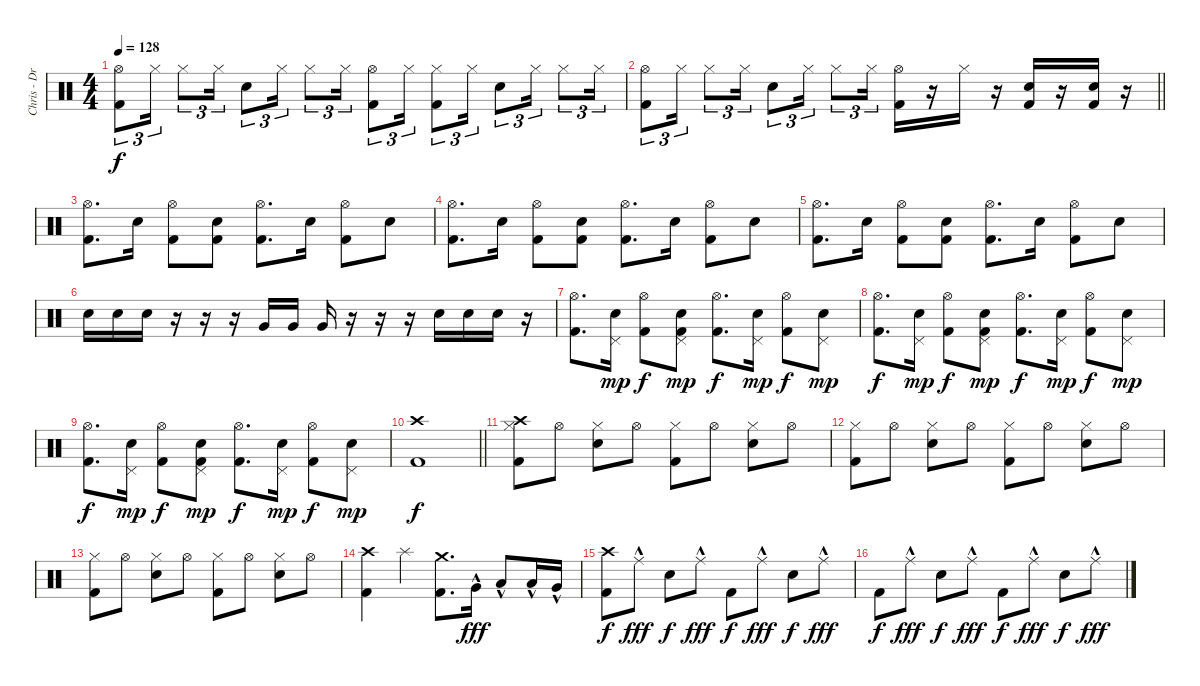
\track ("Chris - Drums" "Chris - Dr") {instrument percussion}
\staff {score}
\articulation defaults
\ts (4 4)
\tempo 128
\clef neutral
\ks c
("Hi-Hat (open)" "Kick (hit) 2").8{tu (3 2) dy f} "Hi-Hat (closed)".16{tu (3 2)} "Hi-Hat (closed)".8{tu (3 2)} "Hi-Hat (closed)".16{tu (3 2)} "Electric Snare (hit)".8{tu (3 2)} "Hi-Hat (closed)".16{tu (3 2)} "Hi-Hat (closed)".8{tu (3 2)} "Hi-Hat (closed)".16{tu (3 2)} ("Hi-Hat (open)" "Kick (hit) 2").8{tu (3 2)} "Hi-Hat (closed)".16{tu (3 2)} ("Hi-Hat (closed)" "Kick (hit) 2").8{tu (3 2)} "Hi-Hat (closed)".16{tu (3 2)} "Electric Snare (hit)".8{tu (3 2)} "Hi-Hat (closed)".16{tu (3 2)} "Hi-Hat (closed)".8{tu (3 2)} "Hi-Hat (closed)".16{tu (3 2)} |
\barLineRight lightlight
("Hi-Hat (open)" "Kick (hit) 2").8{tu (3 2)} "Hi-Hat (closed)".16{tu (3 2)} "Hi-Hat (closed)".8{tu (3 2)} "Hi-Hat (closed)".16{tu (3 2)} "Electric Snare (hit)".8{tu (3 2)} "Hi-Hat (closed)".16{tu (3 2)} "Hi-Hat (closed)".8{tu (3 2)} "Hi-Hat (closed)".16{tu (3 2)} ("Hi-Hat (open)" "Kick (hit) 2").16 r.16 "Hi-Hat (closed)".16 r.16 ("Electric Snare (hit)" "Kick (hit) 2").16 r.16 ("Electric Snare (hit)" "Kick (hit) 2").16 r.16 |
("Hi-Hat (open)" "Kick (hit) 2").8{d} "Electric Snare (hit)".16 ("Hi-Hat (open)" "Kick (hit) 2").8 ("Electric Snare (hit)" "Kick (hit) 2").8 ("Hi-Hat (open)" "Kick (hit) 2").8{d} "Electric Snare (hit)".16 ("Hi-Hat (open)" "Kick (hit) 2").8 "Electric Snare (hit)".8 |
("Hi-Hat (open)" "Kick (hit) 2").8{d} "Electric Snare (hit)".16 ("Hi-Hat (open)" "Kick (hit) 2").8 ("Electric Snare (hit)" "Kick (hit) 2").8 ("Hi-Hat (open)" "Kick (hit) 2").8{d} "Electric Snare (hit)".16 ("Hi-Hat (open)" "Kick (hit) 2").8 "Electric Snare (hit)".8 |
("Hi-Hat (open)" "Kick (hit) 2").8{d} "Electric Snare (hit)".16 ("Hi-Hat (open)" "Kick (hit) 2").8 ("Electric Snare (hit)" "Kick (hit) 2").8 ("Hi-Hat (open)" "Kick (hit) 2").8{d} "Electric Snare (hit)".16 ("Hi-Hat (open)" "Kick (hit) 2").8 "Electric Snare (hit)".8 |
"Electric Snare (hit)".16 "Electric Snare (hit)".16 "Electric Snare (hit)".16 r.16 r.16 r.16 "Very Low Tom (hit)".16 "Very Low Tom (hit)".16 "Very Low Tom (hit)".16 r.16 r.16 r.16 "Electric Snare (hit)".16 "Electric Snare (hit)".16 "Electric Snare (hit)".16 r.16 |
("Hi-Hat (open)" "Kick (hit) 2").8{d} ("Pedal Hi-Hat (hit)" "Electric Snare (hit)").16{dy mp} ("Hi-Hat (open)" "Kick (hit) 2").8{dy f} ("Pedal Hi-Hat (hit)" "Electric Snare (hit)" "Kick (hit) 2").8{dy mp} ("Hi-Hat (open)" "Kick (hit) 2").8{d dy f} ("Pedal Hi-Hat (hit)" "Electric Snare (hit)").16{dy mp} ("Hi-Hat (open)" "Kick (hit) 2").8{dy f} ("Pedal Hi-Hat (hit)" "Electric Snare (hit)").8{dy mp} |
("Hi-Hat (open)" "Kick (hit) 2").8{d dy f} ("Pedal Hi-Hat (hit)" "Electric Snare (hit)").16{dy mp} ("Hi-Hat (open)" "Kick (hit) 2").8{dy f} ("Pedal Hi-Hat (hit)" "Electric Snare (hit)" "Kick (hit) 2").8{dy mp} ("Hi-Hat (open)" "Kick (hit) 2").8{d dy f} ("Pedal Hi-Hat (hit)" "Electric Snare (hit)").16{dy mp} ("Hi-Hat (open)" "Kick (hit) 2").8{dy f} ("Pedal Hi-Hat (hit)" "Electric Snare (hit)").8{dy mp} |
("Hi-Hat (open)" "Kick (hit) 2").8{d dy f} ("Pedal Hi-Hat (hit)" "Electric Snare (hit)").16{dy mp} ("Hi-Hat (open)" "Kick (hit) 2").8{dy f} ("Pedal Hi-Hat (hit)" "Electric Snare (hit)" "Kick (hit) 2").8{dy mp} ("Hi-Hat (open)" "Kick (hit) 2").8{d dy f} ("Pedal Hi-Hat (hit)" "Electric Snare (hit)").16{dy mp} ("Hi-Hat (open)" "Kick (hit) 2").8{dy f} ("Pedal Hi-Hat (hit)" "Electric Snare (hit)").8{dy mp} |
\barLineRight lightlight
("Crash high (hit)" "Kick (hit) 2").1{dy f} |
("Crash high (hit)" "Hi-Hat (closed)" "Kick (hit) 2").8 "Hi-Hat (open)".8 ("Hi-Hat (closed)" "Electric Snare (hit)").8 "Hi-Hat (open)".8 ("Hi-Hat (closed)" "Kick (hit) 2").8 "Hi-Hat (open)".8 ("Hi-Hat (closed)" "Electric Snare (hit)").8 "Hi-Hat (open)".8 |
("Hi-Hat (closed)" "Kick (hit) 2").8 "Hi-Hat (open)".8 ("Hi-Hat (closed)" "Electric Snare (hit)").8 "Hi-Hat (open)".8 ("Hi-Hat (closed)" "Kick (hit) 2").8 "Hi-Hat (open)".8 ("Hi-Hat (closed)" "Electric Snare (hit)").8 "Hi-Hat (open)".8 |
("Hi-Hat (closed)" "Kick (hit) 2").8 "Hi-Hat (open)".8 ("Hi-Hat (closed)" "Electric Snare (hit)").8 "Hi-Hat (open)".8 ("Hi-Hat (closed)" "Kick (hit) 2").8 "Hi-Hat (open)".8 ("Hi-Hat (closed)" "Electric Snare (hit)").8 "Hi-Hat (open)".8 |
("Crash high (hit)" "Kick (hit) 2").4 "Splash (hit)".4 ("Crash medium (hit)" "Kick (hit) 2").8{d} "Very Low Tom (hit)"{hac}.16{dy fff} "Low Tom (hit)"{hac}.8 "Low Tom (hit)"{hac}.16 "Very Low Tom (hit)"{hac}.16 |
("Crash high (hit)" "Kick (hit) 2").8{dy f} "Ride (middle)"{hac}.8{dy fff} "Electric Snare (hit)".8{dy f} "Ride (middle)"{hac}.8{dy fff} "Kick (hit) 2".8{dy f} "Ride (middle)"{hac}.8{dy fff} "Electric Snare (hit)".8{dy f} "Ride (middle)"{hac}.8{dy fff} |
"Kick (hit) 2".8{dy f} "Ride (middle)"{hac}.8{dy fff} "Electric Snare (hit)".8{dy f} "Ride (middle)"{hac}.8{dy fff} "Kick (hit) 2".8{dy f} "Ride (middle)"{hac}.8{dy fff} "Electric Snare (hit)".8{dy f} "Ride (middle)"{hac}.8{dy fff}
